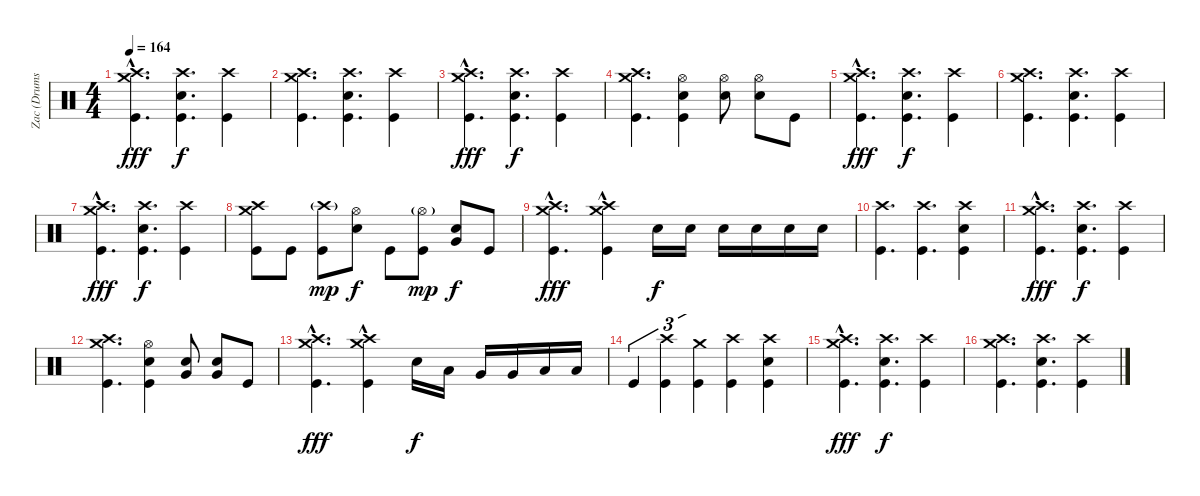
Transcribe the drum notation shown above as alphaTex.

\track ("Zac (Drums)" "Zac (Drums") {instrument percussion}
\staff {score}
\articulation defaults
\ts (4 4)
\tempo 164
\clef neutral
\ks c
("Crash high (hit)"{hac} "Crash medium (hit)" "Kick (hit)").4{d dy fff} ("Crash high (hit)" "Electric Snare (hit)" "Kick (hit)").4{d dy f} ("Crash high (hit)" "Kick (hit)").4 |
("Crash high (hit)" "Crash medium (hit)" "Kick (hit)").4{d} ("Crash high (hit)" "Electric Snare (hit)" "Kick (hit)").4{d} ("Crash high (hit)" "Kick (hit)").4 |
("Crash high (hit)"{hac} "Crash medium (hit)" "Kick (hit)").4{d dy fff} ("Crash high (hit)" "Electric Snare (hit)" "Kick (hit)").4{d dy f} ("Crash high (hit)" "Kick (hit)").4 |
("Crash high (hit)" "Crash medium (hit)" "Kick (hit)").4{d} ("Hi-Hat (open)" "Electric Snare (hit)" "Kick (hit)").4 ("Hi-Hat (open)" "Electric Snare (hit)").8 ("Hi-Hat (open)" "Electric Snare (hit)").8 "Kick (hit)".8 |
("Crash high (hit)"{hac} "Crash medium (hit)" "Kick (hit)").4{d dy fff} ("Crash high (hit)" "Electric Snare (hit)" "Kick (hit)").4{d dy f} ("Crash high (hit)" "Kick (hit)").4 |
("Crash high (hit)" "Crash medium (hit)" "Kick (hit)").4{d} ("Crash high (hit)" "Electric Snare (hit)" "Kick (hit)").4{d} ("Crash high (hit)" "Kick (hit)").4 |
("Crash high (hit)"{hac} "Crash medium (hit)" "Kick (hit)").4{d dy fff} ("Crash high (hit)" "Electric Snare (hit)" "Kick (hit)").4{d dy f} ("Crash high (hit)" "Kick (hit)").4 |
("Crash high (hit)" "Crash medium (hit)" "Kick (hit)").8 "Kick (hit)".8 ("Crash high (hit)"{g} "Kick (hit)").8{dy mp} ("Hi-Hat (open)" "Electric Snare (hit)").8{dy f} "Kick (hit)".8 ("Hi-Hat (open)"{g} "Kick (hit)").8{dy mp} ("Electric Snare (hit)" "Very Low Tom (hit)").8{dy f} "Kick (hit)".8 |
("Crash high (hit)"{hac} "Crash medium (hit)" "Kick (hit)").4{d dy fff} ("Crash high (hit)"{hac} "Crash medium (hit)" "Kick (hit)").4 "Electric Snare (hit)".16{dy f} "Electric Snare (hit)".16 "Electric Snare (hit)".16 "Electric Snare (hit)".16 "Electric Snare (hit)".16 "Electric Snare (hit)".16 |
("Crash high (hit)" "Kick (hit)").4{d} ("Crash high (hit)" "Kick (hit)").4{d} ("Crash high (hit)" "Electric Snare (hit)" "Kick (hit)").4 |
("Crash high (hit)"{hac} "Crash medium (hit)" "Kick (hit)").4{d dy fff} ("Crash high (hit)" "Electric Snare (hit)" "Kick (hit)").4{d dy f} ("Crash high (hit)" "Kick (hit)").4 |
("Crash high (hit)" "Crash medium (hit)" "Kick (hit)").4{d} ("Hi-Hat (open)" "Electric Snare (hit)" "Kick (hit)").4 ("Electric Snare (hit)" "Very Low Tom (hit)").8 ("Electric Snare (hit)" "Very Low Tom (hit)").8 "Kick (hit)".8 |
("Crash high (hit)"{hac} "Crash medium (hit)" "Kick (hit)").4{d dy fff} ("Crash high (hit)"{hac} "Crash medium (hit)" "Kick (hit)").4 "Electric Snare (hit)".16{dy f} "Low Tom (hit)".16 "Very Low Tom (hit)".16 "Very Low Tom (hit)".16 "Low Floor Tom (hit)".16 "Low Floor Tom (hit)".16 |
"Kick (hit)".4{tu (3 2)} ("Crash high (hit)" "Kick (hit)").4{tu (3 2)} ("Crash medium (hit)" "Kick (hit)").4{tu (3 2)} ("Crash high (hit)" "Kick (hit)").4 ("Crash high (hit)" "Electric Snare (hit)" "Kick (hit)").4 |
("Crash high (hit)"{hac} "Crash medium (hit)" "Kick (hit)").4{d dy fff} ("Crash high (hit)" "Electric Snare (hit)" "Kick (hit)").4{d dy f} ("Crash high (hit)" "Kick (hit)").4 |
("Crash high (hit)" "Crash medium (hit)" "Kick (hit)").4{d} ("Crash high (hit)" "Electric Snare (hit)" "Kick (hit)").4{d} ("Crash high (hit)" "Kick (hit)").4
